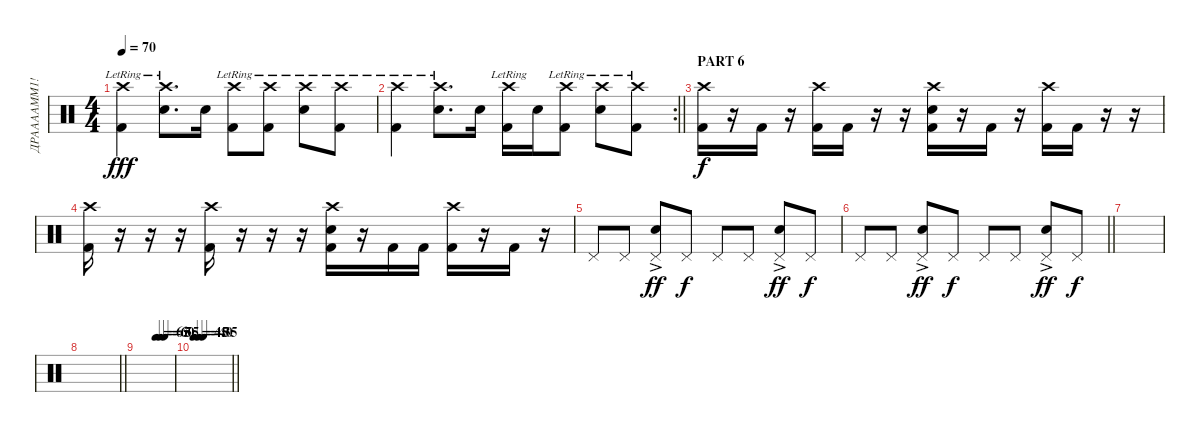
\track ("ДРААААММ1!!11 \\m/" "ДРААААММ1!") {instrument percussion}
\staff {score}
\articulation defaults
\ts (4 4)
\tempo 70
\clef neutral
\ks c
("Crash high (hit)"{lr} "Kick (hit) 2").4{dy fff} ("Crash high (hit)"{lr} "Snare (hit) 2").8{d} "Snare (hit) 2".16 ("Crash high (hit)"{lr} "Kick (hit) 2").8 ("Crash high (hit)"{lr} "Kick (hit) 2").8 ("Crash high (hit)"{lr} "Snare (hit) 2").8 ("Crash high (hit)"{lr} "Kick (hit) 2").8 |
\rc 2
\barLineRight lightlight
("Crash high (hit)"{lr} "Kick (hit) 2").4 ("Crash high (hit)"{lr} "Snare (hit) 2").8{d} "Snare (hit) 2".16 ("Crash high (hit)"{lr} "Kick (hit) 2").16 "Snare (hit) 2".16 ("Crash high (hit)"{lr} "Kick (hit) 2").8 ("Crash high (hit)"{lr} "Snare (hit) 2").8 ("Crash high (hit)"{lr} "Kick (hit) 2").8 |
\section ("" "PART 6")
("Crash high (hit)" "Kick (hit) 2").16{dy f} r.16 "Kick (hit) 2".16 r.16 ("Crash high (hit)" "Kick (hit) 2").16 "Kick (hit) 2".16 r.16 r.16 ("Crash high (hit)" "Snare (hit) 2" "Kick (hit) 2").16 r.16 "Kick (hit) 2".16 r.16 ("Crash high (hit)" "Kick (hit) 2").16 "Kick (hit) 2".16 r.16 r.16 |
("Crash high (hit)" "Kick (hit) 2").16 r.16 r.16 r.16 ("Crash high (hit)" "Kick (hit) 2").16 r.16 r.16 r.16 ("Crash high (hit)" "Snare (hit) 2" "Kick (hit) 2").16 r.16 "Kick (hit) 2".16 "Kick (hit) 2".16 ("Crash high (hit)" "Kick (hit) 2").16 r.16 "Kick (hit) 2".16 r.16 |
"Pedal Hi-Hat (hit)".8 "Pedal Hi-Hat (hit)".8 ("Pedal Hi-Hat (hit)"{ac} "Electric Snare (hit)").8{dy ff} "Pedal Hi-Hat (hit)".8{dy f} "Pedal Hi-Hat (hit)".8 "Pedal Hi-Hat (hit)".8 ("Pedal Hi-Hat (hit)"{ac} "Electric Snare (hit)").8{dy ff} "Pedal Hi-Hat (hit)".8{dy f} |
\barLineRight lightlight "Pedal Hi-Hat (hit)".8 "Pedal Hi-Hat (hit)".8
("Pedal Hi-Hat (hit)"{ac} "Electric Snare (hit)").8{dy ff} "Pedal Hi-Hat (hit)".8{dy f} "Pedal Hi-Hat (hit)".8 "Pedal Hi-Hat (hit)".8 ("Pedal Hi-Hat (hit)"{ac} "Electric Snare (hit)").8{dy ff} "Pedal Hi-Hat (hit)".8{dy f} |
|
\barLineRight lightlight
|
\tempo (65 0.5)
\tempo (60 0.625)
\tempo (55 0.75)
|
\tempo 45
\tempo (40 0.125)
\tempo (35 0.25)
\barLineRight lightlight
